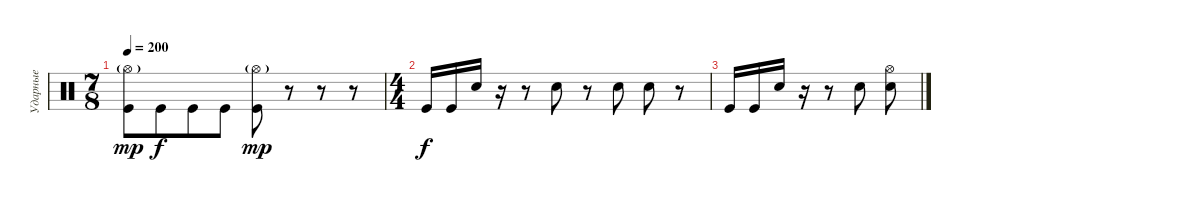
\track ("Ударные" "Ударные") {instrument percussion}
\staff {score}
\articulation defaults
\ts (7 8)
\tempo 200
\clef neutral
\ks c
("Hi-Hat (open)"{g} "Kick (hit)").8{dy mp} "Kick (hit)".8{dy f} "Kick (hit)".8 "Kick (hit)".8 ("Hi-Hat (open)"{g} "Kick (hit)").8{dy mp} r.8 r.8 r.8 |
\ts (4 4)
"Kick (hit)".16{dy f} "Kick (hit)".16 "Snare (hit) 2".16 r.16 r.8 "Snare (hit) 2".8 r.8 "Snare (hit) 2".8 "Snare (hit) 2".8 r.8 |
"Kick (hit)".16 "Kick (hit)".16 "Snare (hit) 2".16 r.16 r.8 "Snare (hit) 2".8 ("Hi-Hat (open)" "Snare (hit) 2").8
